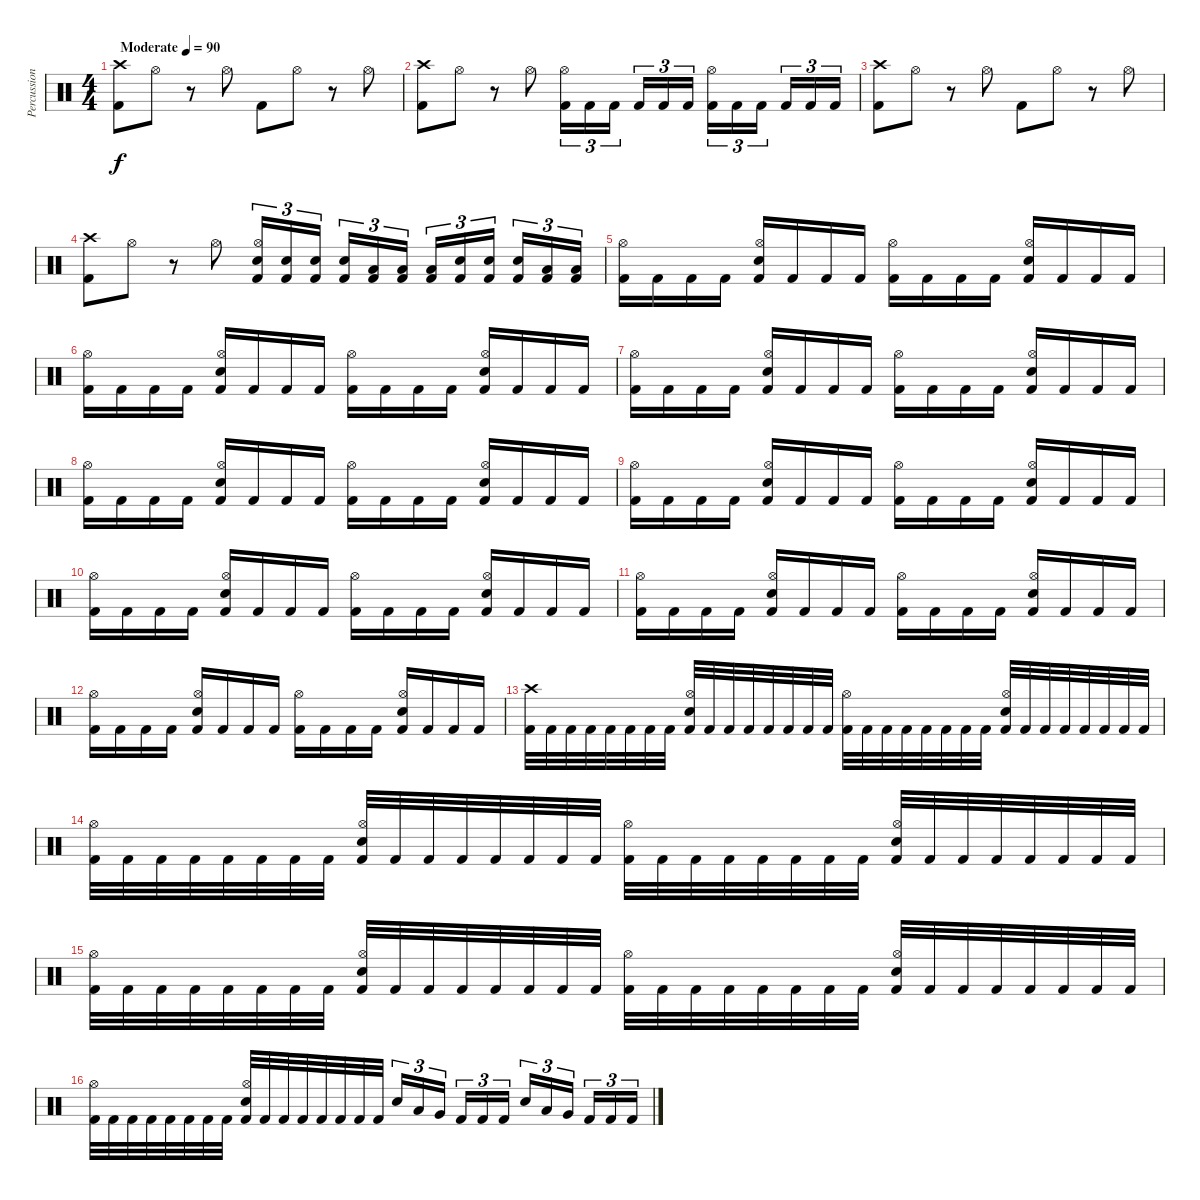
\track ("Percussion" "Percussion") {instrument percussion}
\staff {score}
\articulation defaults
\ts (4 4)
\tempo (90 "Moderate")
\clef neutral
\ks c
("Crash high (hit)" "Kick (hit) 2").8{dy f} "Hi-Hat (open)".8 r.8 "Hi-Hat (open)".8 "Kick (hit) 2".8 "Hi-Hat (open)".8 r.8 "Hi-Hat (open)".8 |
("Crash high (hit)" "Kick (hit) 2").8 "Hi-Hat (open)".8 r.8 "Hi-Hat (open)".8 ("Kick (hit) 2" "Hi-Hat (open)").16{tu (3 2)} "Kick (hit) 2".16{tu (3 2)} "Kick (hit) 2".16{tu (3 2) beam splitsecondary} "Kick (hit) 2".16{tu (3 2)} "Kick (hit) 2".16{tu (3 2)} "Kick (hit) 2".16{tu (3 2)} ("Kick (hit) 2" "Hi-Hat (open)").16{tu (3 2)} "Kick (hit) 2".16{tu (3 2)} "Kick (hit) 2".16{tu (3 2) beam splitsecondary} "Kick (hit) 2".16{tu (3 2)} "Kick (hit) 2".16{tu (3 2)} "Kick (hit) 2".16{tu (3 2)} |
("Crash high (hit)" "Kick (hit) 2").8 "Hi-Hat (open)".8 r.8 "Hi-Hat (open)".8 "Kick (hit) 2".8 "Hi-Hat (open)".8 r.8 "Hi-Hat (open)".8 |
("Crash high (hit)" "Kick (hit) 2").8 "Hi-Hat (open)".8 r.8 "Hi-Hat (open)".8 ("Kick (hit) 2" "Hi-Hat (open)" "Electric Snare (hit)").16{tu (3 2)} ("Kick (hit) 2" "Electric Snare (hit)").16{tu (3 2)} ("Kick (hit) 2" "Electric Snare (hit)").16{tu (3 2) beam splitsecondary} ("Kick (hit) 2" "Electric Snare (hit)").16{tu (3 2)} ("Kick (hit) 2" "Low Floor Tom (hit)").16{tu (3 2)} ("Kick (hit) 2" "Low Floor Tom (hit)").16{tu (3 2)} ("Kick (hit) 2" "Low Floor Tom (hit)").16{tu (3 2)} ("Kick (hit) 2" "Electric Snare (hit)").16{tu (3 2)} ("Kick (hit) 2" "Electric Snare (hit)").16{tu (3 2) beam splitsecondary} ("Kick (hit) 2" "Electric Snare (hit)").16{tu (3 2)} ("Kick (hit) 2" "Low Floor Tom (hit)").16{tu (3 2)} ("Kick (hit) 2" "Low Floor Tom (hit)").16{tu (3 2)} |
("Kick (hit) 2" "Hi-Hat (open)").16 "Kick (hit) 2".16 "Kick (hit) 2".16 "Kick (hit) 2".16 ("Kick (hit) 2" "Hi-Hat (open)" "Electric Snare (hit)").16 "Kick (hit) 2".16 "Kick (hit) 2".16 "Kick (hit) 2".16 ("Kick (hit) 2" "Hi-Hat (open)").16 "Kick (hit) 2".16 "Kick (hit) 2".16 "Kick (hit) 2".16 ("Kick (hit) 2" "Hi-Hat (open)" "Electric Snare (hit)").16 "Kick (hit) 2".16 "Kick (hit) 2".16 "Kick (hit) 2".16 |
("Kick (hit) 2" "Hi-Hat (open)").16 "Kick (hit) 2".16 "Kick (hit) 2".16 "Kick (hit) 2".16 ("Kick (hit) 2" "Hi-Hat (open)" "Electric Snare (hit)").16 "Kick (hit) 2".16 "Kick (hit) 2".16 "Kick (hit) 2".16 ("Kick (hit) 2" "Hi-Hat (open)").16 "Kick (hit) 2".16 "Kick (hit) 2".16 "Kick (hit) 2".16 ("Kick (hit) 2" "Hi-Hat (open)" "Electric Snare (hit)").16 "Kick (hit) 2".16 "Kick (hit) 2".16 "Kick (hit) 2".16 |
("Kick (hit) 2" "Hi-Hat (open)").16 "Kick (hit) 2".16 "Kick (hit) 2".16 "Kick (hit) 2".16 ("Kick (hit) 2" "Hi-Hat (open)" "Electric Snare (hit)").16 "Kick (hit) 2".16 "Kick (hit) 2".16 "Kick (hit) 2".16 ("Kick (hit) 2" "Hi-Hat (open)").16 "Kick (hit) 2".16 "Kick (hit) 2".16 "Kick (hit) 2".16 ("Kick (hit) 2" "Hi-Hat (open)" "Electric Snare (hit)").16 "Kick (hit) 2".16 "Kick (hit) 2".16 "Kick (hit) 2".16 |
("Kick (hit) 2" "Hi-Hat (open)").16 "Kick (hit) 2".16 "Kick (hit) 2".16 "Kick (hit) 2".16 ("Kick (hit) 2" "Hi-Hat (open)" "Electric Snare (hit)").16 "Kick (hit) 2".16 "Kick (hit) 2".16 "Kick (hit) 2".16 ("Kick (hit) 2" "Hi-Hat (open)").16 "Kick (hit) 2".16 "Kick (hit) 2".16 "Kick (hit) 2".16 ("Kick (hit) 2" "Hi-Hat (open)" "Electric Snare (hit)").16 "Kick (hit) 2".16 "Kick (hit) 2".16 "Kick (hit) 2".16 |
("Kick (hit) 2" "Hi-Hat (open)").16 "Kick (hit) 2".16 "Kick (hit) 2".16 "Kick (hit) 2".16 ("Kick (hit) 2" "Hi-Hat (open)" "Electric Snare (hit)").16 "Kick (hit) 2".16 "Kick (hit) 2".16 "Kick (hit) 2".16 ("Kick (hit) 2" "Hi-Hat (open)").16 "Kick (hit) 2".16 "Kick (hit) 2".16 "Kick (hit) 2".16 ("Kick (hit) 2" "Hi-Hat (open)" "Electric Snare (hit)").16 "Kick (hit) 2".16 "Kick (hit) 2".16 "Kick (hit) 2".16 |
("Kick (hit) 2" "Hi-Hat (open)").16 "Kick (hit) 2".16 "Kick (hit) 2".16 "Kick (hit) 2".16 ("Kick (hit) 2" "Hi-Hat (open)" "Electric Snare (hit)").16 "Kick (hit) 2".16 "Kick (hit) 2".16 "Kick (hit) 2".16 ("Kick (hit) 2" "Hi-Hat (open)").16 "Kick (hit) 2".16 "Kick (hit) 2".16 "Kick (hit) 2".16 ("Kick (hit) 2" "Hi-Hat (open)" "Electric Snare (hit)").16 "Kick (hit) 2".16 "Kick (hit) 2".16 "Kick (hit) 2".16 |
("Kick (hit) 2" "Hi-Hat (open)").16 "Kick (hit) 2".16 "Kick (hit) 2".16 "Kick (hit) 2".16 ("Kick (hit) 2" "Hi-Hat (open)" "Electric Snare (hit)").16 "Kick (hit) 2".16 "Kick (hit) 2".16 "Kick (hit) 2".16 ("Kick (hit) 2" "Hi-Hat (open)").16 "Kick (hit) 2".16 "Kick (hit) 2".16 "Kick (hit) 2".16 ("Kick (hit) 2" "Hi-Hat (open)" "Electric Snare (hit)").16 "Kick (hit) 2".16 "Kick (hit) 2".16 "Kick (hit) 2".16 |
("Kick (hit) 2" "Hi-Hat (open)").16 "Kick (hit) 2".16 "Kick (hit) 2".16 "Kick (hit) 2".16 ("Kick (hit) 2" "Hi-Hat (open)" "Electric Snare (hit)").16 "Kick (hit) 2".16 "Kick (hit) 2".16 "Kick (hit) 2".16 ("Kick (hit) 2" "Hi-Hat (open)").16 "Kick (hit) 2".16 "Kick (hit) 2".16 "Kick (hit) 2".16 ("Kick (hit) 2" "Hi-Hat (open)" "Electric Snare (hit)").16 "Kick (hit) 2".16 "Kick (hit) 2".16 "Kick (hit) 2".16 |
("Kick (hit) 2" "Crash high (hit)").32 "Kick (hit) 2".32 "Kick (hit) 2".32 "Kick (hit) 2".32 "Kick (hit) 2".32 "Kick (hit) 2".32 "Kick (hit) 2".32 "Kick (hit) 2".32 ("Kick (hit) 2" "Hi-Hat (open)" "Electric Snare (hit)").32 "Kick (hit) 2".32 "Kick (hit) 2".32 "Kick (hit) 2".32 "Kick (hit) 2".32 "Kick (hit) 2".32 "Kick (hit) 2".32 "Kick (hit) 2".32 ("Kick (hit) 2" "Hi-Hat (open)").32 "Kick (hit) 2".32 "Kick (hit) 2".32 "Kick (hit) 2".32 "Kick (hit) 2".32 "Kick (hit) 2".32 "Kick (hit) 2".32 "Kick (hit) 2".32 ("Kick (hit) 2" "Hi-Hat (open)" "Electric Snare (hit)").32 "Kick (hit) 2".32 "Kick (hit) 2".32 "Kick (hit) 2".32 "Kick (hit) 2".32 "Kick (hit) 2".32 "Kick (hit) 2".32 "Kick (hit) 2".32 |
("Kick (hit) 2" "Hi-Hat (open)").32 "Kick (hit) 2".32 "Kick (hit) 2".32 "Kick (hit) 2".32 "Kick (hit) 2".32 "Kick (hit) 2".32 "Kick (hit) 2".32 "Kick (hit) 2".32 ("Kick (hit) 2" "Hi-Hat (open)" "Electric Snare (hit)").32 "Kick (hit) 2".32 "Kick (hit) 2".32 "Kick (hit) 2".32 "Kick (hit) 2".32 "Kick (hit) 2".32 "Kick (hit) 2".32 "Kick (hit) 2".32 ("Kick (hit) 2" "Hi-Hat (open)").32 "Kick (hit) 2".32 "Kick (hit) 2".32 "Kick (hit) 2".32 "Kick (hit) 2".32 "Kick (hit) 2".32 "Kick (hit) 2".32 "Kick (hit) 2".32 ("Kick (hit) 2" "Hi-Hat (open)" "Electric Snare (hit)").32 "Kick (hit) 2".32 "Kick (hit) 2".32 "Kick (hit) 2".32 "Kick (hit) 2".32 "Kick (hit) 2".32 "Kick (hit) 2".32 "Kick (hit) 2".32 |
("Kick (hit) 2" "Hi-Hat (open)").32 "Kick (hit) 2".32 "Kick (hit) 2".32 "Kick (hit) 2".32 "Kick (hit) 2".32 "Kick (hit) 2".32 "Kick (hit) 2".32 "Kick (hit) 2".32 ("Kick (hit) 2" "Hi-Hat (open)" "Electric Snare (hit)").32 "Kick (hit) 2".32 "Kick (hit) 2".32 "Kick (hit) 2".32 "Kick (hit) 2".32 "Kick (hit) 2".32 "Kick (hit) 2".32 "Kick (hit) 2".32 ("Kick (hit) 2" "Hi-Hat (open)").32 "Kick (hit) 2".32 "Kick (hit) 2".32 "Kick (hit) 2".32 "Kick (hit) 2".32 "Kick (hit) 2".32 "Kick (hit) 2".32 "Kick (hit) 2".32 ("Kick (hit) 2" "Hi-Hat (open)" "Electric Snare (hit)").32 "Kick (hit) 2".32 "Kick (hit) 2".32 "Kick (hit) 2".32 "Kick (hit) 2".32 "Kick (hit) 2".32 "Kick (hit) 2".32 "Kick (hit) 2".32 |
("Kick (hit) 2" "Hi-Hat (open)").32 "Kick (hit) 2".32 "Kick (hit) 2".32 "Kick (hit) 2".32 "Kick (hit) 2".32 "Kick (hit) 2".32 "Kick (hit) 2".32 "Kick (hit) 2".32 ("Kick (hit) 2" "Hi-Hat (open)" "Electric Snare (hit)").32 "Kick (hit) 2".32 "Kick (hit) 2".32 "Kick (hit) 2".32 "Kick (hit) 2".32 "Kick (hit) 2".32 "Kick (hit) 2".32 "Kick (hit) 2".32 "Electric Snare (hit)".16{tu (3 2)} "Low Tom (hit)".16{tu (3 2)} "Very Low Tom (hit)".16{tu (3 2) beam splitsecondary} "Kick (hit) 2".16{tu (3 2)} "Kick (hit) 2".16{tu (3 2)} "Kick (hit) 2".16{tu (3 2)} "Electric Snare (hit)".16{tu (3 2)} "Low Tom (hit)".16{tu (3 2)} "Very Low Tom (hit)".16{tu (3 2) beam splitsecondary} "Kick (hit) 2".16{tu (3 2)} "Kick (hit) 2".16{tu (3 2)} "Kick (hit) 2".16{tu (3 2)}
